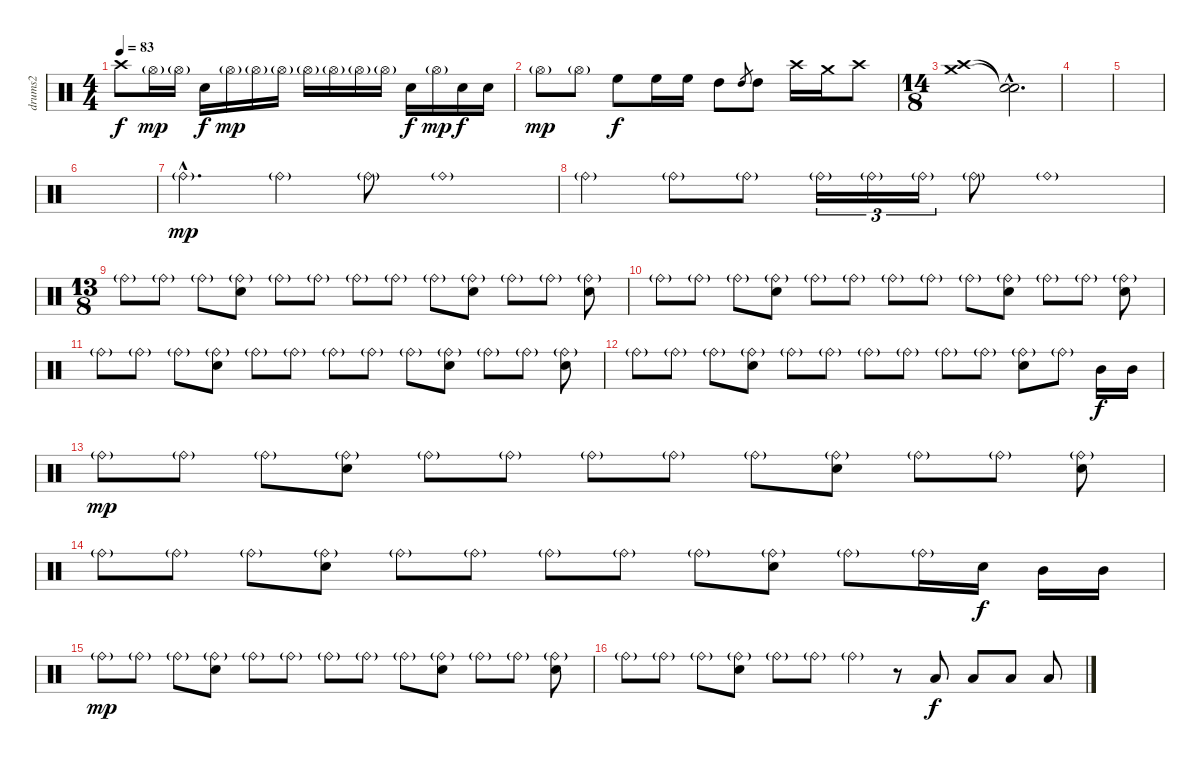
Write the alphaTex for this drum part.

\track ("drums2" "drums2") {instrument percussion}
\staff {score}
\articulation defaults
\ts (4 4)
\tempo 83
\clef neutral
\ks c "Crash high (hit)".8{dy f} "Hi-Hat (open)"{g}.16{dy mp} "Hi-Hat (open)"{g}.16 "Snare (hit) 2".16{dy f} "Hi-Hat (open)"{g}.16{dy mp} "Hi-Hat (open)"{g}.16 "Hi-Hat (open)"{g}.16 "Hi-Hat (open)"{g}.16 "Hi-Hat (open)"{g}.16 "Hi-Hat (open)"{g}.16 "Hi-Hat (open)"{g}.16 "Snare (hit) 2".16{dy f} "Hi-Hat (open)"{g}.16{dy mp} "Snare (hit) 2".16{dy f} "Snare (hit) 2".16
|
"Hi-Hat (open)"{g}.8{dy mp} "Hi-Hat (open)"{g}.8 "High Floor Tom (hit)".8{dy f} "High Floor Tom (hit)".16 "High Floor Tom (hit)".16 "High Tom (hit)".8 "High Tom (hit)".8{gr} "High Tom (hit)".8 "Crash high (hit)".16 "Crash medium (hit)".16 "Crash high (hit)".8 |
\ts (14 8)
("Crash high (hit)" "Crash medium (hit)").1 ("Snare (hit)"{hac t} "Snare (hit)"{hac t}).2{d} |
|
|
|
"Ride (bell)"{g hac}.4{d dy mp} "Ride (bell)"{g}.4 "Ride (bell)"{g}.8 "Ride (bell)"{g}.1 |
"Ride (bell)"{g}.4 "Ride (bell)"{g}.8 "Ride (bell)"{g}.8 "Ride (bell)"{g}.16{tu (3 2)} "Ride (bell)"{g}.16{tu (3 2)} "Ride (bell)"{g}.16{tu (3 2)} "Ride (bell)"{g}.8 "Ride (bell)"{g}.1 |
\ts (13 8)
"Ride (bell)"{g}.8 "Ride (bell)"{g}.8 "Ride (bell)"{g}.8 ("Ride (bell)"{g} "Snare (hit) 2").8 "Ride (bell)"{g}.8 "Ride (bell)"{g}.8 "Ride (bell)"{g}.8 "Ride (bell)"{g}.8 "Ride (bell)"{g}.8 ("Ride (bell)"{g} "Snare (hit) 2").8 "Ride (bell)"{g}.8 "Ride (bell)"{g}.8 ("Ride (bell)"{g} "Snare (hit) 2").8 |
"Ride (bell)"{g}.8 "Ride (bell)"{g}.8 "Ride (bell)"{g}.8 ("Ride (bell)"{g} "Snare (hit) 2").8 "Ride (bell)"{g}.8 "Ride (bell)"{g}.8 "Ride (bell)"{g}.8 "Ride (bell)"{g}.8 "Ride (bell)"{g}.8 ("Ride (bell)"{g} "Snare (hit) 2").8 "Ride (bell)"{g}.8 "Ride (bell)"{g}.8 ("Ride (bell)"{g} "Snare (hit) 2").8 |
"Ride (bell)"{g}.8 "Ride (bell)"{g}.8 "Ride (bell)"{g}.8 ("Ride (bell)"{g} "Snare (hit) 2").8 "Ride (bell)"{g}.8 "Ride (bell)"{g}.8 "Ride (bell)"{g}.8 "Ride (bell)"{g}.8 "Ride (bell)"{g}.8 ("Ride (bell)"{g} "Snare (hit) 2").8 "Ride (bell)"{g}.8 "Ride (bell)"{g}.8 ("Ride (bell)"{g} "Snare (hit) 2").8 |
"Ride (bell)"{g}.8 "Ride (bell)"{g}.8 "Ride (bell)"{g}.8 ("Ride (bell)"{g} "Snare (hit) 2").8 "Ride (bell)"{g}.8 "Ride (bell)"{g}.8 "Ride (bell)"{g}.8 "Ride (bell)"{g}.8 "Ride (bell)"{g}.8 "Ride (bell)"{g}.8 ("Ride (bell)"{g} "Snare (hit) 2").8 "Ride (bell)"{g}.8 "Mid Tom (hit)".16{dy f} "Mid Tom (hit)".16 |
"Ride (bell)"{g}.8{dy mp} "Ride (bell)"{g}.8 "Ride (bell)"{g}.8 ("Ride (bell)"{g} "Snare (hit) 2").8 "Ride (bell)"{g}.8 "Ride (bell)"{g}.8 "Ride (bell)"{g}.8 "Ride (bell)"{g}.8 "Ride (bell)"{g}.8 ("Ride (bell)"{g} "Snare (hit) 2").8 "Ride (bell)"{g}.8 "Ride (bell)"{g}.8 ("Ride (bell)"{g} "Snare (hit) 2").8 |
"Ride (bell)"{g}.8 "Ride (bell)"{g}.8 "Ride (bell)"{g}.8 ("Ride (bell)"{g} "Snare (hit) 2").8 "Ride (bell)"{g}.8 "Ride (bell)"{g}.8 "Ride (bell)"{g}.8 "Ride (bell)"{g}.8 "Ride (bell)"{g}.8 ("Ride (bell)"{g} "Snare (hit) 2").8 "Ride (bell)"{g}.8 "Ride (bell)"{g}.16 "Snare (hit) 2".16{dy f} "Mid Tom (hit)".16 "Mid Tom (hit)".16 |
"Ride (bell)"{g}.8{dy mp} "Ride (bell)"{g}.8 "Ride (bell)"{g}.8 ("Ride (bell)"{g} "Snare (hit) 2").8 "Ride (bell)"{g}.8 "Ride (bell)"{g}.8 "Ride (bell)"{g}.8 "Ride (bell)"{g}.8 "Ride (bell)"{g}.8 ("Ride (bell)"{g} "Snare (hit) 2").8 "Ride (bell)"{g}.8 "Ride (bell)"{g}.8 ("Ride (bell)"{g} "Snare (hit) 2").8 |
"Ride (bell)"{g}.8 "Ride (bell)"{g}.8 "Ride (bell)"{g}.8 ("Ride (bell)"{g} "Snare (hit) 2").8 "Ride (bell)"{g}.8 "Ride (bell)"{g}.8 "Ride (bell)"{g}.4 r.8 "Low Tom (hit)".8{dy f} "Low Tom (hit)".8 "Low Floor Tom (hit)".8 "Low Floor Tom (hit)".8
